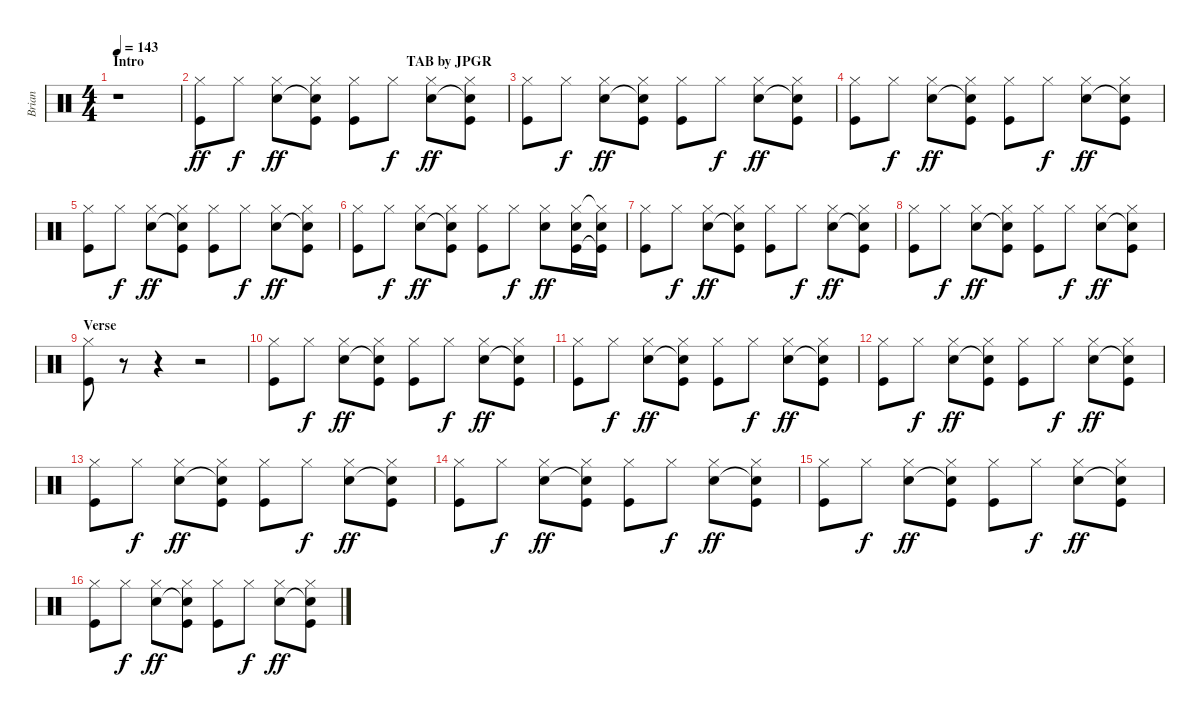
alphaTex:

\track ("Brian" "Brian") {instrument percussion}
\staff {score}
\articulation defaults
\ts (4 4)
\section ("" "Intro                                                                           TAB by JPGR")
\tempo 143
\clef neutral
\ks c
r.1{dy ff} |
("Hi-Hat (closed)" "Kick (hit)").8 "Hi-Hat (closed)".8{dy f} ("Hi-Hat (closed)" "Electric Snare (hit)").8{dy ff} ("Hi-Hat (closed)" "Snare (hit)"{t} "Kick (hit)").8 ("Hi-Hat (closed)" "Kick (hit)").8 "Hi-Hat (closed)".8{dy f} ("Hi-Hat (closed)" "Electric Snare (hit)").8{dy ff} ("Hi-Hat (closed)" "Snare (hit)"{t} "Kick (hit)").8 |
("Hi-Hat (closed)" "Kick (hit)").8 "Hi-Hat (closed)".8{dy f} ("Hi-Hat (closed)" "Electric Snare (hit)").8{dy ff} ("Hi-Hat (closed)" "Snare (hit)"{t} "Kick (hit)").8 ("Hi-Hat (closed)" "Kick (hit)").8 "Hi-Hat (closed)".8{dy f} ("Hi-Hat (closed)" "Electric Snare (hit)").8{dy ff} ("Hi-Hat (closed)" "Snare (hit)"{t} "Kick (hit)").8 |
("Hi-Hat (closed)" "Kick (hit)").8 "Hi-Hat (closed)".8{dy f} ("Hi-Hat (closed)" "Electric Snare (hit)").8{dy ff} ("Hi-Hat (closed)" "Snare (hit)"{t} "Kick (hit)").8 ("Hi-Hat (closed)" "Kick (hit)").8 "Hi-Hat (closed)".8{dy f} ("Hi-Hat (closed)" "Electric Snare (hit)").8{dy ff} ("Hi-Hat (closed)" "Snare (hit)"{t} "Kick (hit)").8 |
("Hi-Hat (closed)" "Kick (hit)").8 "Hi-Hat (closed)".8{dy f} ("Hi-Hat (closed)" "Electric Snare (hit)").8{dy ff} ("Hi-Hat (closed)" "Snare (hit)"{t} "Kick (hit)").8 ("Hi-Hat (closed)" "Kick (hit)").8 "Hi-Hat (closed)".8{dy f} ("Hi-Hat (closed)" "Electric Snare (hit)").8{dy ff} ("Hi-Hat (closed)" "Snare (hit)"{t} "Kick (hit)").8 |
("Hi-Hat (closed)" "Kick (hit)").8 "Hi-Hat (closed)".8{dy f} ("Hi-Hat (closed)" "Electric Snare (hit)").8{dy ff} ("Hi-Hat (closed)" "Snare (hit)"{t} "Kick (hit)").8 ("Hi-Hat (closed)" "Kick (hit)").8 "Hi-Hat (closed)".8{dy f} ("Hi-Hat (closed)" "Electric Snare (hit)").8{dy ff} ("Hi-Hat (closed)" "Electric Snare (hit)" "Kick (hit)").16 ("Hi-Hat (closed)"{t} "Electric Snare (hit)" "Kick (hit)"{t}).16 |
("Hi-Hat (closed)" "Kick (hit)").8 "Hi-Hat (closed)".8{dy f} ("Hi-Hat (closed)" "Electric Snare (hit)").8{dy ff} ("Hi-Hat (closed)" "Snare (hit)"{t} "Kick (hit)").8 ("Hi-Hat (closed)" "Kick (hit)").8 "Hi-Hat (closed)".8{dy f} ("Hi-Hat (closed)" "Electric Snare (hit)").8{dy ff} ("Hi-Hat (closed)" "Snare (hit)"{t} "Kick (hit)").8 |
("Hi-Hat (closed)" "Kick (hit)").8 "Hi-Hat (closed)".8{dy f} ("Hi-Hat (closed)" "Electric Snare (hit)").8{dy ff} ("Hi-Hat (closed)" "Snare (hit)"{t} "Kick (hit)").8 ("Hi-Hat (closed)" "Kick (hit)").8 "Hi-Hat (closed)".8{dy f} ("Hi-Hat (closed)" "Electric Snare (hit)").8{dy ff} ("Hi-Hat (closed)" "Snare (hit)"{t} "Kick (hit)").8 |
\section ("" "Verse")
("Hi-Hat (closed)" "Kick (hit)").8 r.8 r.4 r.2 |
("Hi-Hat (closed)" "Kick (hit)").8 "Hi-Hat (closed)".8{dy f} ("Hi-Hat (closed)" "Electric Snare (hit)").8{dy ff} ("Hi-Hat (closed)" "Snare (hit)"{t} "Kick (hit)").8 ("Hi-Hat (closed)" "Kick (hit)").8 "Hi-Hat (closed)".8{dy f} ("Hi-Hat (closed)" "Electric Snare (hit)").8{dy ff} ("Hi-Hat (closed)" "Snare (hit)"{t} "Kick (hit)").8 |
("Hi-Hat (closed)" "Kick (hit)").8 "Hi-Hat (closed)".8{dy f} ("Hi-Hat (closed)" "Electric Snare (hit)").8{dy ff} ("Hi-Hat (closed)" "Snare (hit)"{t} "Kick (hit)").8 ("Hi-Hat (closed)" "Kick (hit)").8 "Hi-Hat (closed)".8{dy f} ("Hi-Hat (closed)" "Electric Snare (hit)").8{dy ff} ("Hi-Hat (closed)" "Snare (hit)"{t} "Kick (hit)").8 |
("Hi-Hat (closed)" "Kick (hit)").8 "Hi-Hat (closed)".8{dy f} ("Hi-Hat (closed)" "Electric Snare (hit)").8{dy ff} ("Hi-Hat (closed)" "Snare (hit)"{t} "Kick (hit)").8 ("Hi-Hat (closed)" "Kick (hit)").8 "Hi-Hat (closed)".8{dy f} ("Hi-Hat (closed)" "Electric Snare (hit)").8{dy ff} ("Hi-Hat (closed)" "Snare (hit)"{t} "Kick (hit)").8 |
("Hi-Hat (closed)" "Kick (hit)").8 "Hi-Hat (closed)".8{dy f} ("Hi-Hat (closed)" "Electric Snare (hit)").8{dy ff} ("Hi-Hat (closed)" "Snare (hit)"{t} "Kick (hit)").8 ("Hi-Hat (closed)" "Kick (hit)").8 "Hi-Hat (closed)".8{dy f} ("Hi-Hat (closed)" "Electric Snare (hit)").8{dy ff} ("Hi-Hat (closed)" "Snare (hit)"{t} "Kick (hit)").8 |
("Hi-Hat (closed)" "Kick (hit)").8 "Hi-Hat (closed)".8{dy f} ("Hi-Hat (closed)" "Electric Snare (hit)").8{dy ff} ("Hi-Hat (closed)" "Snare (hit)"{t} "Kick (hit)").8 ("Hi-Hat (closed)" "Kick (hit)").8 "Hi-Hat (closed)".8{dy f} ("Hi-Hat (closed)" "Electric Snare (hit)").8{dy ff} ("Hi-Hat (closed)" "Snare (hit)"{t} "Kick (hit)").8 |
("Hi-Hat (closed)" "Kick (hit)").8 "Hi-Hat (closed)".8{dy f} ("Hi-Hat (closed)" "Electric Snare (hit)").8{dy ff} ("Hi-Hat (closed)" "Snare (hit)"{t} "Kick (hit)").8 ("Hi-Hat (closed)" "Kick (hit)").8 "Hi-Hat (closed)".8{dy f} ("Hi-Hat (closed)" "Electric Snare (hit)").8{dy ff} ("Hi-Hat (closed)" "Snare (hit)"{t} "Kick (hit)").8 |
("Hi-Hat (closed)" "Kick (hit)").8 "Hi-Hat (closed)".8{dy f} ("Hi-Hat (closed)" "Electric Snare (hit)").8{dy ff} ("Hi-Hat (closed)" "Snare (hit)"{t} "Kick (hit)").8 ("Hi-Hat (closed)" "Kick (hit)").8 "Hi-Hat (closed)".8{dy f} ("Hi-Hat (closed)" "Electric Snare (hit)").8{dy ff} ("Hi-Hat (closed)" "Snare (hit)"{t} "Kick (hit)").8
